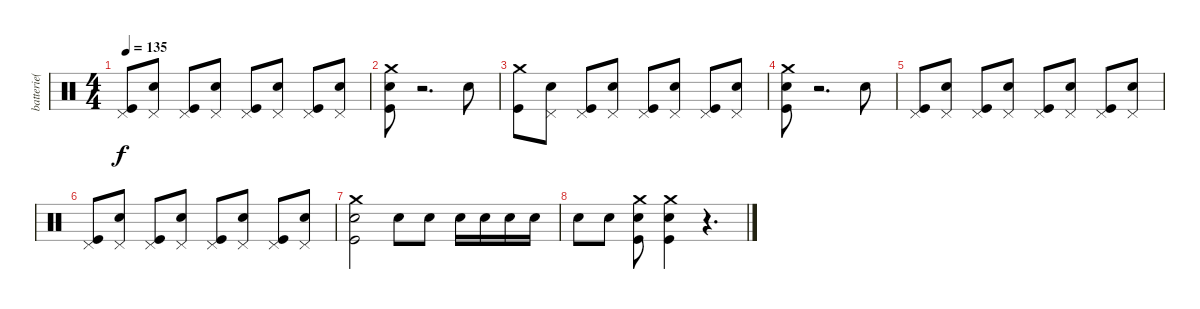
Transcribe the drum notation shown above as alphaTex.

\track ("batterie( Yureesh )" "batterie( ") {instrument percussion}
\staff {score}
\articulation defaults
\ts (4 4)
\tempo 135
\clef neutral
\ks c
("Pedal Hi-Hat (hit)" "Kick (hit)").8{dy f} ("Pedal Hi-Hat (hit)" "Snare (hit) 2").8 ("Pedal Hi-Hat (hit)" "Kick (hit)").8 ("Pedal Hi-Hat (hit)" "Snare (hit) 2").8 ("Pedal Hi-Hat (hit)" "Kick (hit)").8 ("Pedal Hi-Hat (hit)" "Snare (hit) 2").8 ("Pedal Hi-Hat (hit)" "Kick (hit)").8 ("Pedal Hi-Hat (hit)" "Snare (hit) 2").8 |
("Crash medium (hit)" "Snare (hit) 2" "Kick (hit)").8 r.2{d} "Snare (hit) 2".8 |
("Crash medium (hit)" "Kick (hit)").8 ("Pedal Hi-Hat (hit)" "Snare (hit) 2").8 ("Pedal Hi-Hat (hit)" "Kick (hit)").8 ("Pedal Hi-Hat (hit)" "Snare (hit) 2").8 ("Pedal Hi-Hat (hit)" "Kick (hit)").8 ("Pedal Hi-Hat (hit)" "Snare (hit) 2").8 ("Pedal Hi-Hat (hit)" "Kick (hit)").8 ("Pedal Hi-Hat (hit)" "Snare (hit) 2").8 |
("Crash medium (hit)" "Snare (hit) 2" "Kick (hit)").8 r.2{d} "Snare (hit) 2".8 |
("Pedal Hi-Hat (hit)" "Kick (hit)").8 ("Pedal Hi-Hat (hit)" "Snare (hit) 2").8 ("Pedal Hi-Hat (hit)" "Kick (hit)").8 ("Pedal Hi-Hat (hit)" "Snare (hit) 2").8 ("Pedal Hi-Hat (hit)" "Kick (hit)").8 ("Pedal Hi-Hat (hit)" "Snare (hit) 2").8 ("Pedal Hi-Hat (hit)" "Kick (hit)").8 ("Pedal Hi-Hat (hit)" "Snare (hit) 2").8 |
("Pedal Hi-Hat (hit)" "Kick (hit)").8 ("Pedal Hi-Hat (hit)" "Snare (hit) 2").8 ("Pedal Hi-Hat (hit)" "Kick (hit)").8 ("Pedal Hi-Hat (hit)" "Snare (hit) 2").8 ("Pedal Hi-Hat (hit)" "Kick (hit)").8 ("Pedal Hi-Hat (hit)" "Snare (hit) 2").8 ("Pedal Hi-Hat (hit)" "Kick (hit)").8 ("Pedal Hi-Hat (hit)" "Snare (hit) 2").8 |
("Crash medium (hit)" "Snare (hit) 2" "Kick (hit)").2 "Snare (hit) 2".8 "Snare (hit) 2".8 "Snare (hit) 2".16 "Snare (hit) 2".16 "Snare (hit) 2".16 "Snare (hit) 2".16 |
"Snare (hit) 2".8 "Snare (hit) 2".8 ("Crash medium (hit)" "Snare (hit) 2" "Kick (hit)").8 ("Crash medium (hit)" "Snare (hit) 2" "Kick (hit)").4 r.4{d}
